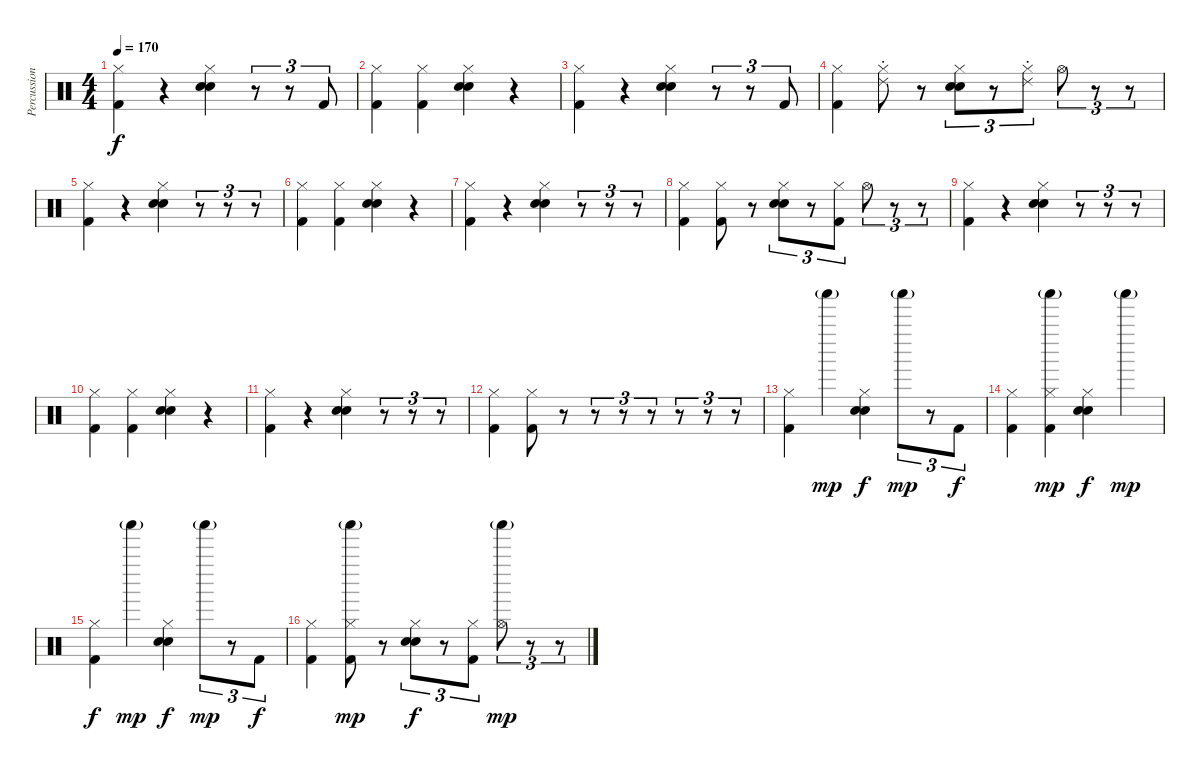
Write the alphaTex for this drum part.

\track ("Percussion" "Percussion") {instrument percussion}
\staff {score}
\articulation defaults
\ts (4 4)
\tempo 170
\clef neutral
\ks c
("Hi-Hat (closed)" "Kick (hit) 2").4{dy f} r.4 ("Hi-Hat (closed)" "Hand Clap (hit)" "Electric Snare (hit)").4 r.8{tu (3 2)} r.8{tu (3 2)} "Kick (hit) 2".8{tu (3 2)} |
("Hi-Hat (closed)" "Kick (hit) 2").4 ("Hi-Hat (closed)" "Kick (hit) 2").4 ("Hi-Hat (closed)" "Hand Clap (hit)" "Electric Snare (hit)").4 r.4 |
("Hi-Hat (closed)" "Kick (hit) 2").4 r.4 ("Hi-Hat (closed)" "Hand Clap (hit)" "Electric Snare (hit)").4 r.8{tu (3 2)} r.8{tu (3 2)} "Kick (hit) 2".8{tu (3 2)} |
("Hi-Hat (closed)" "Kick (hit) 2").4 ("Hi-Hat (closed)" "Ride (choke) 2").8 r.8 ("Hi-Hat (closed)" "Hand Clap (hit)" "Electric Snare (hit)").8{tu (3 2)} r.8{tu (3 2)} ("Hi-Hat (closed)" "Ride (choke) 2").8{tu (3 2)} "Hi-Hat (open)".8{tu (3 2)} r.8{tu (3 2)} r.8{tu (3 2)} |
("Hi-Hat (closed)" "Kick (hit) 2").4 r.4 ("Hi-Hat (closed)" "Hand Clap (hit)" "Electric Snare (hit)").4 r.8{tu (3 2)} r.8{tu (3 2)} r.8{tu (3 2)} |
("Hi-Hat (closed)" "Kick (hit) 2").4 ("Hi-Hat (closed)" "Kick (hit) 2").4 ("Hi-Hat (closed)" "Hand Clap (hit)" "Electric Snare (hit)").4 r.4 |
("Hi-Hat (closed)" "Kick (hit) 2").4 r.4 ("Hi-Hat (closed)" "Hand Clap (hit)" "Electric Snare (hit)").4 r.8{tu (3 2)} r.8{tu (3 2)} r.8{tu (3 2)} |
("Hi-Hat (closed)" "Kick (hit) 2").4 ("Hi-Hat (closed)" "Kick (hit) 2").8 r.8 ("Hi-Hat (closed)" "Hand Clap (hit)" "Electric Snare (hit)").8{tu (3 2)} r.8{tu (3 2)} ("Hi-Hat (closed)" "Kick (hit) 2").8{tu (3 2)} "Hi-Hat (open)".8{tu (3 2)} r.8{tu (3 2)} r.8{tu (3 2)} |
("Hi-Hat (closed)" "Kick (hit) 2").4 r.4 ("Hi-Hat (closed)" "Hand Clap (hit)" "Electric Snare (hit)").4 r.8{tu (3 2)} r.8{tu (3 2)} r.8{tu (3 2)} |
("Hi-Hat (closed)" "Kick (hit) 2").4 ("Hi-Hat (closed)" "Kick (hit) 2").4 ("Hi-Hat (closed)" "Hand Clap (hit)" "Electric Snare (hit)").4 r.4 |
("Hi-Hat (closed)" "Kick (hit) 2").4 r.4 ("Hi-Hat (closed)" "Hand Clap (hit)" "Electric Snare (hit)").4 r.8{tu (3 2)} r.8{tu (3 2)} r.8{tu (3 2)} |
("Hi-Hat (closed)" "Kick (hit) 2").4 ("Hi-Hat (closed)" "Kick (hit) 2").8 r.8 r.8{tu (3 2)} r.8{tu (3 2)} r.8{tu (3 2)} r.8{tu (3 2)} r.8{tu (3 2)} r.8{tu (3 2)} |
("Hi-Hat (closed)" "Kick (hit) 2").4 "Shaker (hit)"{g}.4{dy mp} ("Hi-Hat (closed)" "Hand Clap (hit)" "Electric Snare (hit)").4{dy f} "Shaker (hit)"{g}.8{tu (3 2) dy mp} r.8{tu (3 2)} "Kick (hit) 2".8{tu (3 2) dy f} |
("Hi-Hat (closed)" "Kick (hit) 2").4 ("Hi-Hat (closed)" "Shaker (hit)"{g} "Kick (hit) 2").4{dy mp} ("Hi-Hat (closed)" "Hand Clap (hit)" "Electric Snare (hit)").4{dy f} "Shaker (hit)"{g}.4{dy mp} |
("Hi-Hat (closed)" "Kick (hit) 2").4{dy f} "Shaker (hit)"{g}.4{dy mp} ("Hi-Hat (closed)" "Hand Clap (hit)" "Electric Snare (hit)").4{dy f} "Shaker (hit)"{g}.8{tu (3 2) dy mp} r.8{tu (3 2)} "Kick (hit) 2".8{tu (3 2) dy f} |
("Hi-Hat (closed)" "Kick (hit) 2").4 ("Hi-Hat (closed)" "Shaker (hit)"{g} "Kick (hit) 2").8{dy mp} r.8 ("Hi-Hat (closed)" "Hand Clap (hit)" "Electric Snare (hit)").8{tu (3 2) dy f} r.8{tu (3 2)} ("Hi-Hat (closed)" "Kick (hit) 2").8{tu (3 2)} ("Hi-Hat (open)" "Shaker (hit)"{g}).8{tu (3 2) dy mp} r.8{tu (3 2)} r.8{tu (3 2)}
